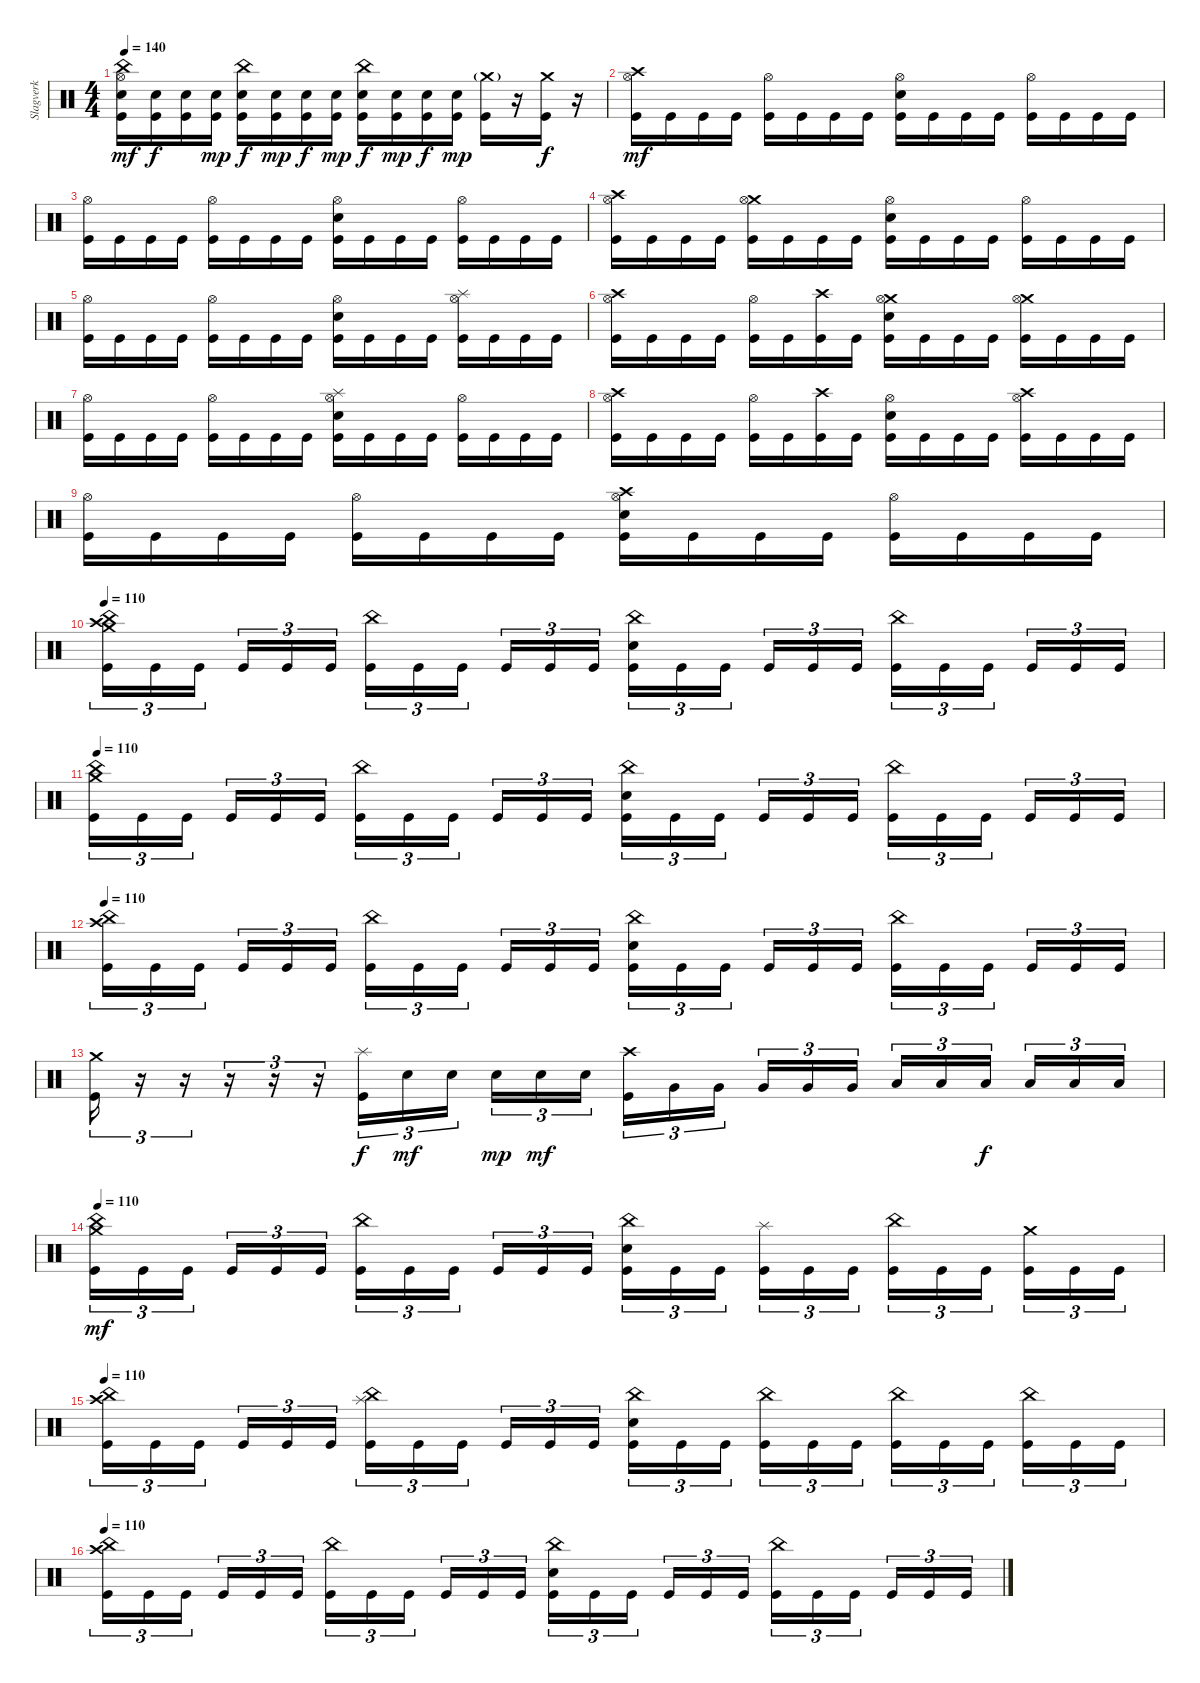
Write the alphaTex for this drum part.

\track ("Slagverk" "Slagverk") {instrument percussion}
\staff {score}
\articulation defaults
\ts (4 4)
\tempo 140
\clef neutral
\ks c
("Hi-Hat (open)" "China (hit)" "Electric Snare (hit)" "Kick (hit)").16{dy mf} ("Electric Snare (hit)" "Kick (hit)").16{dy f} ("Electric Snare (hit)" "Kick (hit)").16 ("Electric Snare (hit)" "Kick (hit)").16{dy mp} ("China (hit)" "Electric Snare (hit)" "Kick (hit)").16{dy f} ("Electric Snare (hit)" "Kick (hit)").16{dy mp} ("Electric Snare (hit)" "Kick (hit)").16{dy f} ("Electric Snare (hit)" "Kick (hit)").16{dy mp} ("China (hit)" "Electric Snare (hit)" "Kick (hit)").16{dy f} ("Electric Snare (hit)" "Kick (hit)").16{dy mp} ("Electric Snare (hit)" "Kick (hit)").16{dy f} ("Electric Snare (hit)" "Kick (hit)").16{dy mp} ("Crash medium (hit)"{g} "Kick (hit)").16 r.16 ("Crash medium (hit)" "Kick (hit)").16{dy f} r.16 |
("Crash high (hit)" "Hi-Hat (open)" "Kick (hit)").16{dy mf} "Kick (hit)".16 "Kick (hit)".16 "Kick (hit)".16 ("Hi-Hat (open)" "Kick (hit)").16 "Kick (hit)".16 "Kick (hit)".16 "Kick (hit)".16 ("Hi-Hat (open)" "Electric Snare (hit)" "Kick (hit)").16 "Kick (hit)".16 "Kick (hit)".16 "Kick (hit)".16 ("Hi-Hat (open)" "Kick (hit)").16 "Kick (hit)".16 "Kick (hit)".16 "Kick (hit)".16 |
("Hi-Hat (open)" "Kick (hit)").16 "Kick (hit)".16 "Kick (hit)".16 "Kick (hit)".16 ("Hi-Hat (open)" "Kick (hit)").16 "Kick (hit)".16 "Kick (hit)".16 "Kick (hit)".16 ("Hi-Hat (open)" "Electric Snare (hit)" "Kick (hit)").16 "Kick (hit)".16 "Kick (hit)".16 "Kick (hit)".16 ("Hi-Hat (open)" "Kick (hit)").16 "Kick (hit)".16 "Kick (hit)".16 "Kick (hit)".16 |
("Crash high (hit)" "Hi-Hat (open)" "Kick (hit)").16 "Kick (hit)".16 "Kick (hit)".16 "Kick (hit)".16 ("Crash medium (hit)" "Hi-Hat (open)" "Kick (hit)").16 "Kick (hit)".16 "Kick (hit)".16 "Kick (hit)".16 ("Hi-Hat (open)" "Electric Snare (hit)" "Kick (hit)").16 "Kick (hit)".16 "Kick (hit)".16 "Kick (hit)".16 ("Hi-Hat (open)" "Kick (hit)").16 "Kick (hit)".16 "Kick (hit)".16 "Kick (hit)".16 |
("Hi-Hat (open)" "Kick (hit)").16 "Kick (hit)".16 "Kick (hit)".16 "Kick (hit)".16 ("Hi-Hat (open)" "Kick (hit)").16 "Kick (hit)".16 "Kick (hit)".16 "Kick (hit)".16 ("Hi-Hat (open)" "Electric Snare (hit)" "Kick (hit)").16 "Kick (hit)".16 "Kick (hit)".16 "Kick (hit)".16 ("Splash (hit)" "Hi-Hat (open)" "Kick (hit)").16 "Kick (hit)".16 "Kick (hit)".16 "Kick (hit)".16 |
("Crash high (hit)" "Hi-Hat (open)" "Kick (hit)").16 "Kick (hit)".16 "Kick (hit)".16 "Kick (hit)".16 ("Hi-Hat (open)" "Kick (hit)").16 "Kick (hit)".16 ("Crash high (hit)" "Kick (hit)").16 "Kick (hit)".16 ("Crash medium (hit)" "Hi-Hat (open)" "Electric Snare (hit)" "Kick (hit)").16 "Kick (hit)".16 "Kick (hit)".16 "Kick (hit)".16 ("Crash medium (hit)" "Hi-Hat (open)" "Kick (hit)").16 "Kick (hit)".16 "Kick (hit)".16 "Kick (hit)".16 |
("Hi-Hat (open)" "Kick (hit)").16 "Kick (hit)".16 "Kick (hit)".16 "Kick (hit)".16 ("Hi-Hat (open)" "Kick (hit)").16 "Kick (hit)".16 "Kick (hit)".16 "Kick (hit)".16 ("Splash (hit)" "Hi-Hat (open)" "Electric Snare (hit)" "Kick (hit)").16 "Kick (hit)".16 "Kick (hit)".16 "Kick (hit)".16 ("Hi-Hat (open)" "Kick (hit)").16 "Kick (hit)".16 "Kick (hit)".16 "Kick (hit)".16 |
("Crash high (hit)" "Hi-Hat (open)" "Kick (hit)").16 "Kick (hit)".16 "Kick (hit)".16 "Kick (hit)".16 ("Hi-Hat (open)" "Kick (hit)").16 "Kick (hit)".16 ("Crash high (hit)" "Kick (hit)").16 "Kick (hit)".16 ("Hi-Hat (open)" "Electric Snare (hit)" "Kick (hit)").16 "Kick (hit)".16 "Kick (hit)".16 "Kick (hit)".16 ("Crash high (hit)" "Hi-Hat (open)" "Kick (hit)").16 "Kick (hit)".16 "Kick (hit)".16 "Kick (hit)".16 |
("Hi-Hat (open)" "Kick (hit)").16 "Kick (hit)".16 "Kick (hit)".16 "Kick (hit)".16 ("Hi-Hat (open)" "Kick (hit)").16 "Kick (hit)".16 "Kick (hit)".16 "Kick (hit)".16 ("Crash high (hit)" "Hi-Hat (open)" "Electric Snare (hit)" "Kick (hit)").16 "Kick (hit)".16 "Kick (hit)".16 "Kick (hit)".16 ("Hi-Hat (open)" "Kick (hit)").16 "Kick (hit)".16 "Kick (hit)".16 "Kick (hit)".16 |
\tempo 110
("China (hit)" "Crash medium (hit)" "Crash high (hit)" "Kick (hit)").16{tu (3 2)} "Kick (hit)".16{tu (3 2)} "Kick (hit)".16{tu (3 2) beam splitsecondary} "Kick (hit)".16{tu (3 2)} "Kick (hit)".16{tu (3 2)} "Kick (hit)".16{tu (3 2)} ("China (hit)" "Kick (hit)").16{tu (3 2)} "Kick (hit)".16{tu (3 2)} "Kick (hit)".16{tu (3 2) beam splitsecondary} "Kick (hit)".16{tu (3 2)} "Kick (hit)".16{tu (3 2)} "Kick (hit)".16{tu (3 2)} ("China (hit)" "Electric Snare (hit)" "Kick (hit)").16{tu (3 2)} "Kick (hit)".16{tu (3 2)} "Kick (hit)".16{tu (3 2) beam splitsecondary} "Kick (hit)".16{tu (3 2)} "Kick (hit)".16{tu (3 2)} "Kick (hit)".16{tu (3 2)} ("China (hit)" "Kick (hit)").16{tu (3 2)} "Kick (hit)".16{tu (3 2)} "Kick (hit)".16{tu (3 2) beam splitsecondary} "Kick (hit)".16{tu (3 2)} "Kick (hit)".16{tu (3 2)} "Kick (hit)".16{tu (3 2)} |
\tempo 110
("China (hit)" "Crash medium (hit)" "Kick (hit)").16{tu (3 2)} "Kick (hit)".16{tu (3 2)} "Kick (hit)".16{tu (3 2) beam splitsecondary} "Kick (hit)".16{tu (3 2)} "Kick (hit)".16{tu (3 2)} "Kick (hit)".16{tu (3 2)} ("China (hit)" "Kick (hit)").16{tu (3 2)} "Kick (hit)".16{tu (3 2)} "Kick (hit)".16{tu (3 2) beam splitsecondary} "Kick (hit)".16{tu (3 2)} "Kick (hit)".16{tu (3 2)} "Kick (hit)".16{tu (3 2)} ("China (hit)" "Electric Snare (hit)" "Kick (hit)").16{tu (3 2)} "Kick (hit)".16{tu (3 2)} "Kick (hit)".16{tu (3 2) beam splitsecondary} "Kick (hit)".16{tu (3 2)} "Kick (hit)".16{tu (3 2)} "Kick (hit)".16{tu (3 2)} ("China (hit)" "Kick (hit)").16{tu (3 2)} "Kick (hit)".16{tu (3 2)} "Kick (hit)".16{tu (3 2) beam splitsecondary} "Kick (hit)".16{tu (3 2)} "Kick (hit)".16{tu (3 2)} "Kick (hit)".16{tu (3 2)} |
\tempo 110
("China (hit)" "Crash high (hit)" "Kick (hit)").16{tu (3 2)} "Kick (hit)".16{tu (3 2)} "Kick (hit)".16{tu (3 2) beam splitsecondary} "Kick (hit)".16{tu (3 2)} "Kick (hit)".16{tu (3 2)} "Kick (hit)".16{tu (3 2)} ("China (hit)" "Kick (hit)").16{tu (3 2)} "Kick (hit)".16{tu (3 2)} "Kick (hit)".16{tu (3 2) beam splitsecondary} "Kick (hit)".16{tu (3 2)} "Kick (hit)".16{tu (3 2)} "Kick (hit)".16{tu (3 2)} ("China (hit)" "Electric Snare (hit)" "Kick (hit)").16{tu (3 2)} "Kick (hit)".16{tu (3 2)} "Kick (hit)".16{tu (3 2) beam splitsecondary} "Kick (hit)".16{tu (3 2)} "Kick (hit)".16{tu (3 2)} "Kick (hit)".16{tu (3 2)} ("China (hit)" "Kick (hit)").16{tu (3 2)} "Kick (hit)".16{tu (3 2)} "Kick (hit)".16{tu (3 2) beam splitsecondary} "Kick (hit)".16{tu (3 2)} "Kick (hit)".16{tu (3 2)} "Kick (hit)".16{tu (3 2)} |
("Crash medium (hit)" "Kick (hit)").16{tu (3 2)} r.16{tu (3 2)} r.16{tu (3 2)} r.16{tu (3 2)} r.16{tu (3 2)} r.16{tu (3 2)} ("Splash (hit)" "Kick (hit)").16{tu (3 2) dy f} "Electric Snare (hit)".16{tu (3 2) dy mf} "Electric Snare (hit)".16{tu (3 2) beam splitsecondary} "Electric Snare (hit)".16{tu (3 2) dy mp} "Electric Snare (hit)".16{tu (3 2) dy mf} "Electric Snare (hit)".16{tu (3 2)} ("Crash high (hit)" "Kick (hit)").16{tu (3 2)} "Very Low Tom (hit)".16{tu (3 2)} "Very Low Tom (hit)".16{tu (3 2) beam splitsecondary} "Very Low Tom (hit)".16{tu (3 2)} "Very Low Tom (hit)".16{tu (3 2)} "Very Low Tom (hit)".16{tu (3 2)} "Low Floor Tom (hit)".16{tu (3 2)} "Low Floor Tom (hit)".16{tu (3 2)} "Low Floor Tom (hit)".16{tu (3 2) dy f beam splitsecondary} "Low Floor Tom (hit)".16{tu (3 2)} "Low Floor Tom (hit)".16{tu (3 2)} "Low Floor Tom (hit)".16{tu (3 2)} |
\tempo 110
("China (hit)" "Crash medium (hit)" "Kick (hit)").16{tu (3 2) dy mf} "Kick (hit)".16{tu (3 2)} "Kick (hit)".16{tu (3 2) beam splitsecondary} "Kick (hit)".16{tu (3 2)} "Kick (hit)".16{tu (3 2)} "Kick (hit)".16{tu (3 2)} ("China (hit)" "Kick (hit)").16{tu (3 2)} "Kick (hit)".16{tu (3 2)} "Kick (hit)".16{tu (3 2) beam splitsecondary} "Kick (hit)".16{tu (3 2)} "Kick (hit)".16{tu (3 2)} "Kick (hit)".16{tu (3 2)} ("China (hit)" "Electric Snare (hit)" "Kick (hit)").16{tu (3 2)} "Kick (hit)".16{tu (3 2)} "Kick (hit)".16{tu (3 2) beam splitsecondary} ("Splash (hit)" "Kick (hit)").16{tu (3 2)} "Kick (hit)".16{tu (3 2)} "Kick (hit)".16{tu (3 2)} ("China (hit)" "Kick (hit)").16{tu (3 2)} "Kick (hit)".16{tu (3 2)} "Kick (hit)".16{tu (3 2) beam splitsecondary} ("Crash medium (hit)" "Kick (hit)").16{tu (3 2)} "Kick (hit)".16{tu (3 2)} "Kick (hit)".16{tu (3 2)} |
\tempo 110
("China (hit)" "Crash high (hit)" "Kick (hit)").16{tu (3 2)} "Kick (hit)".16{tu (3 2)} "Kick (hit)".16{tu (3 2) beam splitsecondary} "Kick (hit)".16{tu (3 2)} "Kick (hit)".16{tu (3 2)} "Kick (hit)".16{tu (3 2)} ("China (hit)" "Splash (hit)" "Kick (hit)").16{tu (3 2)} "Kick (hit)".16{tu (3 2)} "Kick (hit)".16{tu (3 2) beam splitsecondary} "Kick (hit)".16{tu (3 2)} "Kick (hit)".16{tu (3 2)} "Kick (hit)".16{tu (3 2)} ("China (hit)" "Electric Snare (hit)" "Kick (hit)").16{tu (3 2)} "Kick (hit)".16{tu (3 2)} "Kick (hit)".16{tu (3 2) beam splitsecondary} ("China (hit)" "Kick (hit)").16{tu (3 2)} "Kick (hit)".16{tu (3 2)} "Kick (hit)".16{tu (3 2)} ("China (hit)" "Kick (hit)").16{tu (3 2)} "Kick (hit)".16{tu (3 2)} "Kick (hit)".16{tu (3 2) beam splitsecondary} ("China (hit)" "Kick (hit)").16{tu (3 2)} "Kick (hit)".16{tu (3 2)} "Kick (hit)".16{tu (3 2)} |
\tempo 110
("China (hit)" "Crash high (hit)" "Kick (hit)").16{tu (3 2)} "Kick (hit)".16{tu (3 2)} "Kick (hit)".16{tu (3 2) beam splitsecondary} "Kick (hit)".16{tu (3 2)} "Kick (hit)".16{tu (3 2)} "Kick (hit)".16{tu (3 2)} ("China (hit)" "Kick (hit)").16{tu (3 2)} "Kick (hit)".16{tu (3 2)} "Kick (hit)".16{tu (3 2) beam splitsecondary} "Kick (hit)".16{tu (3 2)} "Kick (hit)".16{tu (3 2)} "Kick (hit)".16{tu (3 2)} ("China (hit)" "Electric Snare (hit)" "Kick (hit)").16{tu (3 2)} "Kick (hit)".16{tu (3 2)} "Kick (hit)".16{tu (3 2) beam splitsecondary} "Kick (hit)".16{tu (3 2)} "Kick (hit)".16{tu (3 2)} "Kick (hit)".16{tu (3 2)} ("China (hit)" "Kick (hit)").16{tu (3 2)} "Kick (hit)".16{tu (3 2)} "Kick (hit)".16{tu (3 2) beam splitsecondary} "Kick (hit)".16{tu (3 2)} "Kick (hit)".16{tu (3 2)} "Kick (hit)".16{tu (3 2)}
